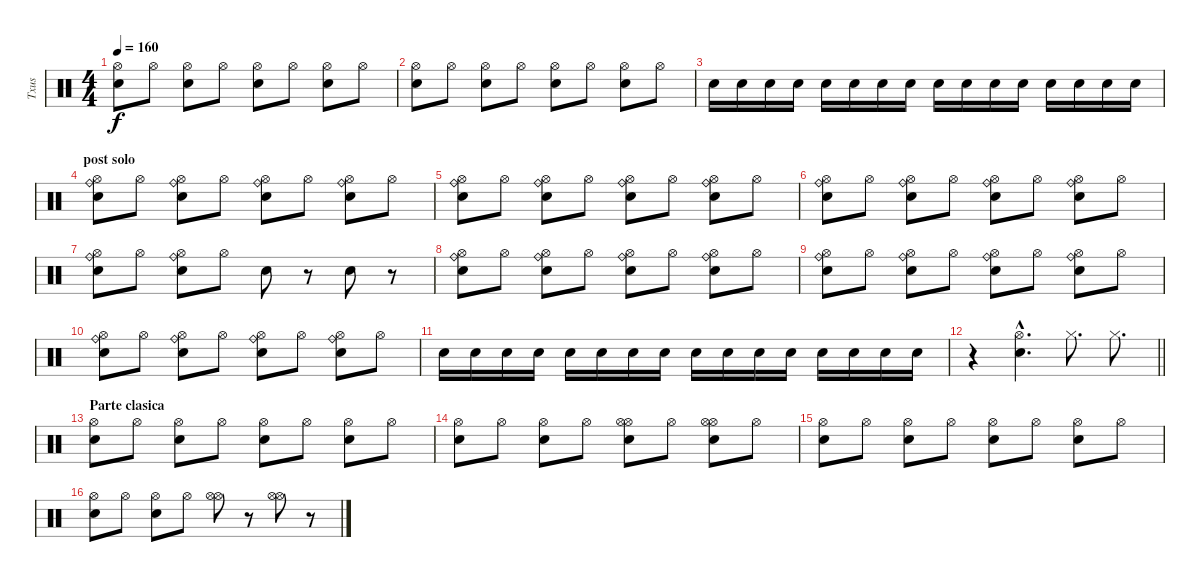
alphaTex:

\track ("Txus" "Txus") {instrument percussion}
\staff {score}
\articulation defaults
\ts (4 4)
\tempo 160
\clef neutral
\ks c
("Snare (hit) 2" "Hi-Hat (open)").8{dy f} "Hi-Hat (open)".8 ("Snare (hit) 2" "Hi-Hat (open)").8 "Hi-Hat (open)".8 ("Snare (hit) 2" "Hi-Hat (open)").8 "Hi-Hat (open)".8 ("Snare (hit) 2" "Hi-Hat (open)").8 "Hi-Hat (open)".8 |
("Snare (hit) 2" "Hi-Hat (open)").8 "Hi-Hat (open)".8 ("Snare (hit) 2" "Hi-Hat (open)").8 "Hi-Hat (open)".8 ("Snare (hit) 2" "Hi-Hat (open)").8 "Hi-Hat (open)".8 ("Snare (hit) 2" "Hi-Hat (open)").8 "Hi-Hat (open)".8 |
"Snare (hit) 2".16 "Snare (hit) 2".16 "Snare (hit) 2".16 "Snare (hit) 2".16 "Snare (hit) 2".16 "Snare (hit) 2".16 "Snare (hit) 2".16 "Snare (hit) 2".16 "Snare (hit) 2".16 "Snare (hit) 2".16 "Snare (hit) 2".16 "Snare (hit) 2".16 "Snare (hit) 2".16 "Snare (hit) 2".16 "Snare (hit) 2".16 "Snare (hit) 2".16 |
\section ("" "post solo")
("Snare (hit) 2" "Hi-Hat (open)" "Ride (bell)").8 "Hi-Hat (open)".8 ("Snare (hit) 2" "Hi-Hat (open)" "Ride (bell)").8 "Hi-Hat (open)".8 ("Snare (hit) 2" "Hi-Hat (open)" "Ride (bell)").8 "Hi-Hat (open)".8 ("Snare (hit) 2" "Hi-Hat (open)" "Ride (bell)").8 "Hi-Hat (open)".8 |
("Snare (hit) 2" "Hi-Hat (open)" "Ride (bell)").8 "Hi-Hat (open)".8 ("Snare (hit) 2" "Hi-Hat (open)" "Ride (bell)").8 "Hi-Hat (open)".8 ("Snare (hit) 2" "Hi-Hat (open)" "Ride (bell)").8 "Hi-Hat (open)".8 ("Snare (hit) 2" "Hi-Hat (open)" "Ride (bell)").8 "Hi-Hat (open)".8 |
("Snare (hit) 2" "Hi-Hat (open)" "Ride (bell)").8 "Hi-Hat (open)".8 ("Snare (hit) 2" "Hi-Hat (open)" "Ride (bell)").8 "Hi-Hat (open)".8 ("Snare (hit) 2" "Hi-Hat (open)" "Ride (bell)").8 "Hi-Hat (open)".8 ("Snare (hit) 2" "Hi-Hat (open)" "Ride (bell)").8 "Hi-Hat (open)".8 |
("Snare (hit) 2" "Hi-Hat (open)" "Ride (bell)").8 "Hi-Hat (open)".8 ("Snare (hit) 2" "Hi-Hat (open)" "Ride (bell)").8 "Hi-Hat (open)".8 "Snare (hit) 2".8 r.8 "Snare (hit) 2".8 r.8 |
("Snare (hit) 2" "Hi-Hat (open)" "Ride (bell)").8 "Hi-Hat (open)".8 ("Snare (hit) 2" "Hi-Hat (open)" "Ride (bell)").8 "Hi-Hat (open)".8 ("Snare (hit) 2" "Hi-Hat (open)" "Ride (bell)").8 "Hi-Hat (open)".8 ("Snare (hit) 2" "Hi-Hat (open)" "Ride (bell)").8 "Hi-Hat (open)".8 |
("Snare (hit) 2" "Hi-Hat (open)" "Ride (bell)").8 "Hi-Hat (open)".8 ("Snare (hit) 2" "Hi-Hat (open)" "Ride (bell)").8 "Hi-Hat (open)".8 ("Snare (hit) 2" "Hi-Hat (open)" "Ride (bell)").8 "Hi-Hat (open)".8 ("Snare (hit) 2" "Hi-Hat (open)" "Ride (bell)").8 "Hi-Hat (open)".8 |
("Snare (hit) 2" "Hi-Hat (open)" "Ride (bell)").8 "Hi-Hat (open)".8 ("Snare (hit) 2" "Hi-Hat (open)" "Ride (bell)").8 "Hi-Hat (open)".8 ("Snare (hit) 2" "Hi-Hat (open)" "Ride (bell)").8 "Hi-Hat (open)".8 ("Snare (hit) 2" "Hi-Hat (open)" "Ride (bell)").8 "Hi-Hat (open)".8 |
"Snare (hit) 2".16 "Snare (hit) 2".16 "Snare (hit) 2".16 "Snare (hit) 2".16 "Snare (hit) 2".16 "Snare (hit) 2".16 "Snare (hit) 2".16 "Snare (hit) 2".16 "Snare (hit) 2".16 "Snare (hit) 2".16 "Snare (hit) 2".16 "Snare (hit) 2".16 "Snare (hit) 2".16 "Snare (hit) 2".16 "Snare (hit) 2".16 "Snare (hit) 2".16 |
\barLineRight lightlight
r.4 ("Hi-Hat (open)"{hac} "Snare (hit) 2"{hac}).4{d} "Hi-Hat (closed)".8{d} "Hi-Hat (closed)".8{d} |
\section ("" "Parte clasica")
("Hi-Hat (open)" "Snare (hit) 2").8 "Hi-Hat (open)".8 ("Hi-Hat (open)" "Snare (hit) 2").8 "Hi-Hat (open)".8 ("Hi-Hat (open)" "Snare (hit) 2").8 "Hi-Hat (open)".8 ("Hi-Hat (open)" "Snare (hit) 2").8 "Hi-Hat (open)".8 |
("Hi-Hat (open)" "Snare (hit) 2").8 "Hi-Hat (open)".8 ("Hi-Hat (open)" "Snare (hit) 2").8 "Hi-Hat (open)".8 ("Hi-Hat (open)" "Snare (hit) 2" "Hi-Hat (open)").8 "Hi-Hat (open)".8 ("Hi-Hat (open)" "Snare (hit) 2" "Hi-Hat (open)").8 "Hi-Hat (open)".8 |
("Hi-Hat (open)" "Snare (hit) 2").8 "Hi-Hat (open)".8 ("Hi-Hat (open)" "Snare (hit) 2").8 "Hi-Hat (open)".8 ("Hi-Hat (open)" "Snare (hit) 2").8 "Hi-Hat (open)".8 ("Hi-Hat (open)" "Snare (hit) 2").8 "Hi-Hat (open)".8 |
("Hi-Hat (open)" "Snare (hit) 2").8 "Hi-Hat (open)".8 ("Hi-Hat (open)" "Snare (hit) 2").8 "Hi-Hat (open)".8 ("Hi-Hat (open)" "Hi-Hat (open)").8 r.8 ("Hi-Hat (open)" "Hi-Hat (open)").8 r.8
